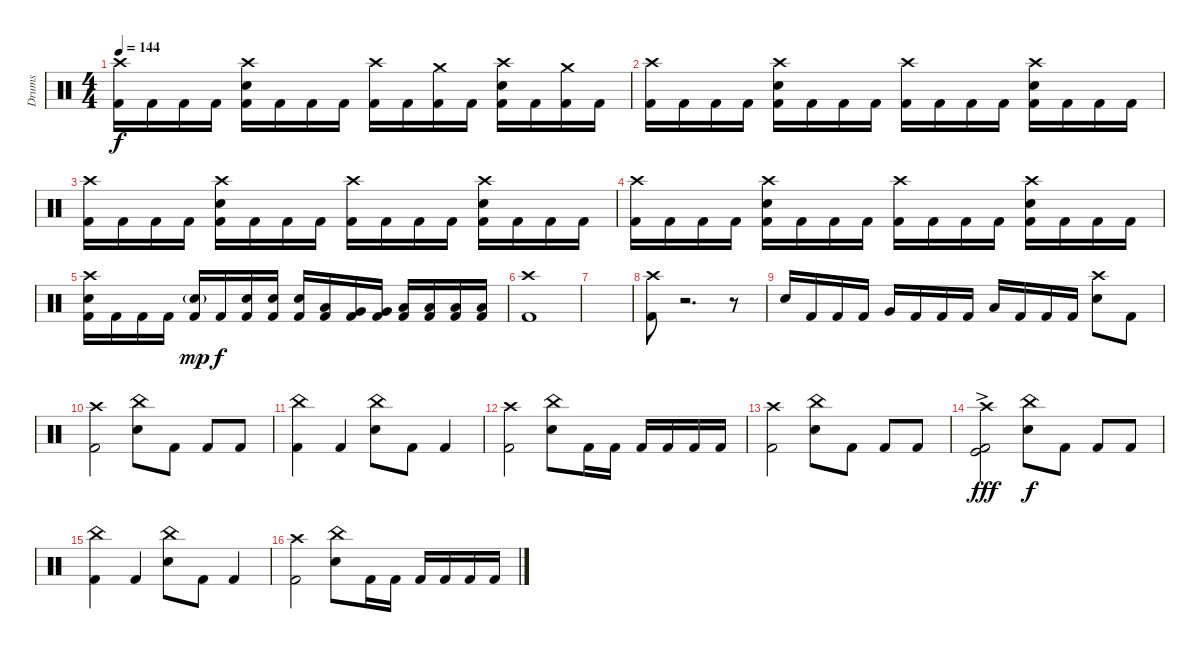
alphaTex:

\track ("Drums" "Drums") {instrument percussion}
\staff {score}
\articulation defaults
\ts (4 4)
\tempo 144
\clef neutral
\ks c
("Crash high (hit)" "Kick (hit) 2").16{dy f} "Kick (hit) 2".16 "Kick (hit) 2".16 "Kick (hit) 2".16 ("Crash high (hit)" "Snare (hit) 2" "Kick (hit) 2").16 "Kick (hit) 2".16 "Kick (hit) 2".16 "Kick (hit) 2".16 ("Crash high (hit)" "Kick (hit) 2").16 "Kick (hit) 2".16 ("Crash medium (hit)" "Kick (hit) 2").16 "Kick (hit) 2".16 ("Crash high (hit)" "Snare (hit) 2" "Kick (hit) 2").16 "Kick (hit) 2".16 ("Crash medium (hit)" "Kick (hit) 2").16 "Kick (hit) 2".16 |
("Crash high (hit)" "Kick (hit) 2").16 "Kick (hit) 2".16 "Kick (hit) 2".16 "Kick (hit) 2".16 ("Crash high (hit)" "Snare (hit) 2" "Kick (hit) 2").16 "Kick (hit) 2".16 "Kick (hit) 2".16 "Kick (hit) 2".16 ("Crash high (hit)" "Kick (hit) 2").16 "Kick (hit) 2".16 "Kick (hit) 2".16 "Kick (hit) 2".16 ("Crash high (hit)" "Snare (hit) 2" "Kick (hit) 2").16 "Kick (hit) 2".16 "Kick (hit) 2".16 "Kick (hit) 2".16 |
("Crash high (hit)" "Kick (hit) 2").16 "Kick (hit) 2".16 "Kick (hit) 2".16 "Kick (hit) 2".16 ("Crash high (hit)" "Snare (hit) 2" "Kick (hit) 2").16 "Kick (hit) 2".16 "Kick (hit) 2".16 "Kick (hit) 2".16 ("Crash high (hit)" "Kick (hit) 2").16 "Kick (hit) 2".16 "Kick (hit) 2".16 "Kick (hit) 2".16 ("Crash high (hit)" "Snare (hit) 2" "Kick (hit) 2").16 "Kick (hit) 2".16 "Kick (hit) 2".16 "Kick (hit) 2".16 |
("Crash high (hit)" "Kick (hit) 2").16 "Kick (hit) 2".16 "Kick (hit) 2".16 "Kick (hit) 2".16 ("Crash high (hit)" "Snare (hit) 2" "Kick (hit) 2").16 "Kick (hit) 2".16 "Kick (hit) 2".16 "Kick (hit) 2".16 ("Crash high (hit)" "Kick (hit) 2").16 "Kick (hit) 2".16 "Kick (hit) 2".16 "Kick (hit) 2".16 ("Crash high (hit)" "Snare (hit) 2" "Kick (hit) 2").16 "Kick (hit) 2".16 "Kick (hit) 2".16 "Kick (hit) 2".16 |
("Crash high (hit)" "Snare (hit) 2" "Kick (hit) 2").16 "Kick (hit) 2".16 "Kick (hit) 2".16 "Kick (hit) 2".16 ("Snare (hit) 2"{g} "Kick (hit) 2").16{dy mp} "Kick (hit) 2".16{dy f} ("Snare (hit) 2" "Kick (hit) 2").16 ("Snare (hit) 2" "Kick (hit) 2").16 ("Snare (hit) 2" "Kick (hit) 2").16 ("Low Tom (hit)" "Kick (hit) 2").16 ("Very Low Tom (hit)" "Kick (hit) 2").16 ("Very Low Tom (hit)" "Kick (hit) 2").16 ("Low Floor Tom (hit)" "Kick (hit) 2").16 ("Low Floor Tom (hit)" "Kick (hit) 2").16 ("Low Floor Tom (hit)" "Kick (hit) 2").16 ("Low Floor Tom (hit)" "Kick (hit) 2").16 |
("Crash high (hit)" "Kick (hit) 2").1 |
|
("Crash high (hit)" "Kick (hit) 2").8 r.2{d volume 0} r.8 |
"Snare (hit) 2".16{volume 16} "Kick (hit) 2".16 "Kick (hit) 2".16 "Kick (hit) 2".16 "Very Low Tom (hit)".16 "Kick (hit) 2".16 "Kick (hit) 2".16 "Kick (hit) 2".16 "Low Floor Tom (hit)".16 "Kick (hit) 2".16 "Kick (hit) 2".16 "Kick (hit) 2".16 ("Crash high (hit)" "Snare (hit) 2").8 "Kick (hit) 2".8 |
("Crash high (hit)" "Kick (hit) 2").2 ("China (hit)" "Snare (hit) 2").8 "Kick (hit) 2".8 "Kick (hit) 2".8 "Kick (hit) 2".8 |
("Kick (hit) 2" "China (hit)").4 "Kick (hit) 2".4 ("China (hit)" "Snare (hit) 2").8 "Kick (hit) 2".8 "Kick (hit) 2".4 |
("Crash high (hit)" "Kick (hit) 2").2 ("China (hit)" "Snare (hit) 2").8 "Kick (hit) 2".16 "Kick (hit) 2".16 "Kick (hit) 2".16 "Kick (hit) 2".16 "Kick (hit) 2".16 "Kick (hit) 2".16 |
("Crash high (hit)" "Kick (hit) 2").2 ("China (hit)" "Snare (hit) 2").8 "Kick (hit) 2".8 "Kick (hit) 2".8 "Kick (hit) 2".8 |
("Kick (hit)"{ac} "Crash high (hit)" "Kick (hit) 2").2{dy fff} ("China (hit)" "Snare (hit) 2").8{dy f} "Kick (hit) 2".8 "Kick (hit) 2".8 "Kick (hit) 2".8 |
("Kick (hit) 2" "China (hit)").4 "Kick (hit) 2".4 ("China (hit)" "Snare (hit) 2").8 "Kick (hit) 2".8 "Kick (hit) 2".4 |
("Crash high (hit)" "Kick (hit) 2").2 ("China (hit)" "Snare (hit) 2").8 "Kick (hit) 2".16 "Kick (hit) 2".16 "Kick (hit) 2".16 "Kick (hit) 2".16 "Kick (hit) 2".16 "Kick (hit) 2".16
